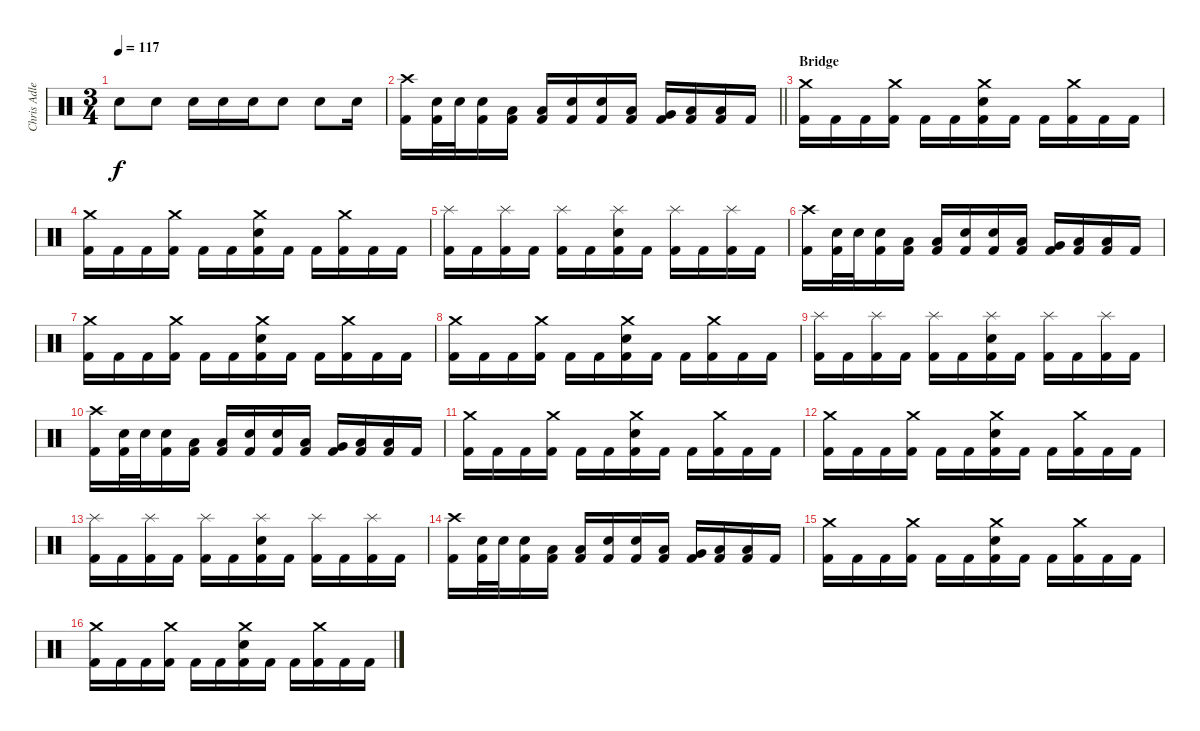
\track ("Chris Adler" "Chris Adle") {instrument percussion}
\staff {score}
\articulation defaults
\ts (3 4)
\tempo 117
\clef neutral
\ks c "Electric Snare (hit)".8{dy f} "Electric Snare (hit)".8 "Electric Snare (hit)".16 "Electric Snare (hit)".16 "Electric Snare (hit)".16 "Electric Snare (hit)".8 "Electric Snare (hit)".8 "Electric Snare (hit)".16
|
\barLineRight lightlight
("Crash high (hit)" "Kick (hit) 2").16 ("Electric Snare (hit)" "Kick (hit) 2").32 "Electric Snare (hit)".32 ("Electric Snare (hit)" "Kick (hit) 2").16 ("Low Tom (hit)" "Kick (hit) 2").16 ("Low Tom (hit)" "Kick (hit) 2").16 ("Electric Snare (hit)" "Kick (hit) 2").16 ("Electric Snare (hit)" "Kick (hit) 2").16 ("Low Tom (hit)" "Kick (hit) 2").16 ("Very Low Tom (hit)" "Kick (hit) 2").16 ("Low Floor Tom (hit)" "Kick (hit) 2").16 ("Low Floor Tom (hit)" "Kick (hit) 2").16 "Kick (hit) 2".16 |
\section ("" "Bridge")
("Crash medium (hit)" "Kick (hit) 2").16 "Kick (hit) 2".16 "Kick (hit) 2".16 ("Crash medium (hit)" "Kick (hit) 2").16 "Kick (hit) 2".16 "Kick (hit) 2".16 ("Crash medium (hit)" "Electric Snare (hit)" "Kick (hit) 2").16 "Kick (hit) 2".16 "Kick (hit) 2".16 ("Crash medium (hit)" "Kick (hit) 2").16 "Kick (hit) 2".16 "Kick (hit) 2".16 |
("Crash medium (hit)" "Kick (hit) 2").16 "Kick (hit) 2".16 "Kick (hit) 2".16 ("Crash medium (hit)" "Kick (hit) 2").16 "Kick (hit) 2".16 "Kick (hit) 2".16 ("Crash medium (hit)" "Electric Snare (hit)" "Kick (hit) 2").16 "Kick (hit) 2".16 "Kick (hit) 2".16 ("Crash medium (hit)" "Kick (hit) 2").16 "Kick (hit) 2".16 "Kick (hit) 2".16 |
("Splash (hit)" "Kick (hit) 2").16 "Kick (hit) 2".16 ("Splash (hit)" "Kick (hit) 2").16 "Kick (hit) 2".16 ("Splash (hit)" "Kick (hit) 2").16 "Kick (hit) 2".16 ("Splash (hit)" "Electric Snare (hit)" "Kick (hit) 2").16 "Kick (hit) 2".16 ("Splash (hit)" "Kick (hit) 2").16 "Kick (hit) 2".16 ("Splash (hit)" "Kick (hit) 2").16 "Kick (hit) 2".16 |
("Crash high (hit)" "Kick (hit) 2").16 ("Electric Snare (hit)" "Kick (hit) 2").32 "Electric Snare (hit)".32 ("Electric Snare (hit)" "Kick (hit) 2").16 ("Low Tom (hit)" "Kick (hit) 2").16 ("Low Tom (hit)" "Kick (hit) 2").16 ("Electric Snare (hit)" "Kick (hit) 2").16 ("Electric Snare (hit)" "Kick (hit) 2").16 ("Low Tom (hit)" "Kick (hit) 2").16 ("Very Low Tom (hit)" "Kick (hit) 2").16 ("Low Floor Tom (hit)" "Kick (hit) 2").16 ("Low Floor Tom (hit)" "Kick (hit) 2").16 "Kick (hit) 2".16 |
("Crash medium (hit)" "Kick (hit) 2").16 "Kick (hit) 2".16 "Kick (hit) 2".16 ("Crash medium (hit)" "Kick (hit) 2").16 "Kick (hit) 2".16 "Kick (hit) 2".16 ("Crash medium (hit)" "Electric Snare (hit)" "Kick (hit) 2").16 "Kick (hit) 2".16 "Kick (hit) 2".16 ("Crash medium (hit)" "Kick (hit) 2").16 "Kick (hit) 2".16 "Kick (hit) 2".16 |
("Crash medium (hit)" "Kick (hit) 2").16 "Kick (hit) 2".16 "Kick (hit) 2".16 ("Crash medium (hit)" "Kick (hit) 2").16 "Kick (hit) 2".16 "Kick (hit) 2".16 ("Crash medium (hit)" "Electric Snare (hit)" "Kick (hit) 2").16 "Kick (hit) 2".16 "Kick (hit) 2".16 ("Crash medium (hit)" "Kick (hit) 2").16 "Kick (hit) 2".16 "Kick (hit) 2".16 |
("Splash (hit)" "Kick (hit) 2").16 "Kick (hit) 2".16 ("Splash (hit)" "Kick (hit) 2").16 "Kick (hit) 2".16 ("Splash (hit)" "Kick (hit) 2").16 "Kick (hit) 2".16 ("Splash (hit)" "Electric Snare (hit)" "Kick (hit) 2").16 "Kick (hit) 2".16 ("Splash (hit)" "Kick (hit) 2").16 "Kick (hit) 2".16 ("Splash (hit)" "Kick (hit) 2").16 "Kick (hit) 2".16 |
("Crash high (hit)" "Kick (hit) 2").16 ("Electric Snare (hit)" "Kick (hit) 2").32 "Electric Snare (hit)".32 ("Electric Snare (hit)" "Kick (hit) 2").16 ("Low Tom (hit)" "Kick (hit) 2").16 ("Low Tom (hit)" "Kick (hit) 2").16 ("Electric Snare (hit)" "Kick (hit) 2").16 ("Electric Snare (hit)" "Kick (hit) 2").16 ("Low Tom (hit)" "Kick (hit) 2").16 ("Very Low Tom (hit)" "Kick (hit) 2").16 ("Low Floor Tom (hit)" "Kick (hit) 2").16 ("Low Floor Tom (hit)" "Kick (hit) 2").16 "Kick (hit) 2".16 |
("Crash medium (hit)" "Kick (hit) 2").16 "Kick (hit) 2".16 "Kick (hit) 2".16 ("Crash medium (hit)" "Kick (hit) 2").16 "Kick (hit) 2".16 "Kick (hit) 2".16 ("Crash medium (hit)" "Electric Snare (hit)" "Kick (hit) 2").16 "Kick (hit) 2".16 "Kick (hit) 2".16 ("Crash medium (hit)" "Kick (hit) 2").16 "Kick (hit) 2".16 "Kick (hit) 2".16 |
("Crash medium (hit)" "Kick (hit) 2").16 "Kick (hit) 2".16 "Kick (hit) 2".16 ("Crash medium (hit)" "Kick (hit) 2").16 "Kick (hit) 2".16 "Kick (hit) 2".16 ("Crash medium (hit)" "Electric Snare (hit)" "Kick (hit) 2").16 "Kick (hit) 2".16 "Kick (hit) 2".16 ("Crash medium (hit)" "Kick (hit) 2").16 "Kick (hit) 2".16 "Kick (hit) 2".16 |
("Splash (hit)" "Kick (hit) 2").16 "Kick (hit) 2".16 ("Splash (hit)" "Kick (hit) 2").16 "Kick (hit) 2".16 ("Splash (hit)" "Kick (hit) 2").16 "Kick (hit) 2".16 ("Splash (hit)" "Electric Snare (hit)" "Kick (hit) 2").16 "Kick (hit) 2".16 ("Splash (hit)" "Kick (hit) 2").16 "Kick (hit) 2".16 ("Splash (hit)" "Kick (hit) 2").16 "Kick (hit) 2".16 |
("Crash high (hit)" "Kick (hit) 2").16 ("Electric Snare (hit)" "Kick (hit) 2").32 "Electric Snare (hit)".32 ("Electric Snare (hit)" "Kick (hit) 2").16 ("Low Tom (hit)" "Kick (hit) 2").16 ("Low Tom (hit)" "Kick (hit) 2").16 ("Electric Snare (hit)" "Kick (hit) 2").16 ("Electric Snare (hit)" "Kick (hit) 2").16 ("Low Tom (hit)" "Kick (hit) 2").16 ("Very Low Tom (hit)" "Kick (hit) 2").16 ("Low Floor Tom (hit)" "Kick (hit) 2").16 ("Low Floor Tom (hit)" "Kick (hit) 2").16 "Kick (hit) 2".16 |
("Crash medium (hit)" "Kick (hit) 2").16 "Kick (hit) 2".16 "Kick (hit) 2".16 ("Crash medium (hit)" "Kick (hit) 2").16 "Kick (hit) 2".16 "Kick (hit) 2".16 ("Crash medium (hit)" "Electric Snare (hit)" "Kick (hit) 2").16 "Kick (hit) 2".16 "Kick (hit) 2".16 ("Crash medium (hit)" "Kick (hit) 2").16 "Kick (hit) 2".16 "Kick (hit) 2".16 |
("Crash medium (hit)" "Kick (hit) 2").16 "Kick (hit) 2".16 "Kick (hit) 2".16 ("Crash medium (hit)" "Kick (hit) 2").16 "Kick (hit) 2".16 "Kick (hit) 2".16 ("Crash medium (hit)" "Electric Snare (hit)" "Kick (hit) 2").16 "Kick (hit) 2".16 "Kick (hit) 2".16 ("Crash medium (hit)" "Kick (hit) 2").16 "Kick (hit) 2".16 "Kick (hit) 2".16
